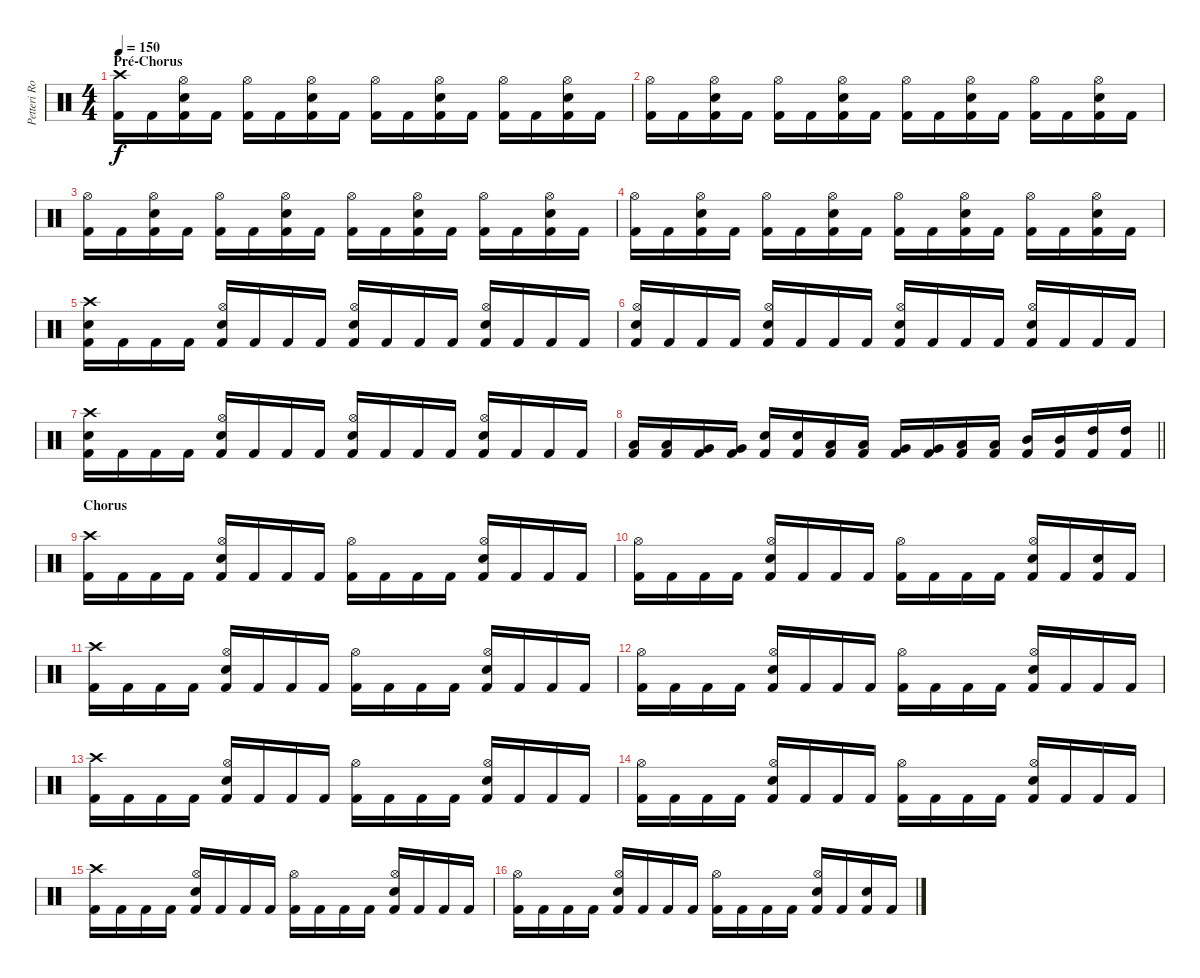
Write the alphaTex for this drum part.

\track ("Petteri Rosenbom" "Petteri Ro") {instrument percussion}
\staff {score}
\articulation defaults
\ts (4 4)
\section ("" "Pré-Chorus")
\tempo 150
\clef neutral
\ks c
("Crash high (hit)" "Kick (hit) 2").16{dy f} "Kick (hit) 2".16 ("Hi-Hat (open)" "Electric Snare (hit)" "Kick (hit) 2").16 "Kick (hit) 2".16 ("Hi-Hat (open)" "Kick (hit) 2").16 "Kick (hit) 2".16 ("Hi-Hat (open)" "Electric Snare (hit)" "Kick (hit) 2").16 "Kick (hit) 2".16 ("Hi-Hat (open)" "Kick (hit) 2").16 "Kick (hit) 2".16 ("Hi-Hat (open)" "Electric Snare (hit)" "Kick (hit) 2").16 "Kick (hit) 2".16 ("Hi-Hat (open)" "Kick (hit) 2").16 "Kick (hit) 2".16 ("Hi-Hat (open)" "Electric Snare (hit)" "Kick (hit) 2").16 "Kick (hit) 2".16 |
("Hi-Hat (open)" "Kick (hit) 2").16 "Kick (hit) 2".16 ("Hi-Hat (open)" "Electric Snare (hit)" "Kick (hit) 2").16 "Kick (hit) 2".16 ("Hi-Hat (open)" "Kick (hit) 2").16 "Kick (hit) 2".16 ("Hi-Hat (open)" "Electric Snare (hit)" "Kick (hit) 2").16 "Kick (hit) 2".16 ("Hi-Hat (open)" "Kick (hit) 2").16 "Kick (hit) 2".16 ("Hi-Hat (open)" "Electric Snare (hit)" "Kick (hit) 2").16 "Kick (hit) 2".16 ("Hi-Hat (open)" "Kick (hit) 2").16 "Kick (hit) 2".16 ("Hi-Hat (open)" "Electric Snare (hit)" "Kick (hit) 2").16 "Kick (hit) 2".16 |
("Hi-Hat (open)" "Kick (hit) 2").16 "Kick (hit) 2".16 ("Hi-Hat (open)" "Electric Snare (hit)" "Kick (hit) 2").16 "Kick (hit) 2".16 ("Hi-Hat (open)" "Kick (hit) 2").16 "Kick (hit) 2".16 ("Hi-Hat (open)" "Electric Snare (hit)" "Kick (hit) 2").16 "Kick (hit) 2".16 ("Hi-Hat (open)" "Kick (hit) 2").16 "Kick (hit) 2".16 ("Hi-Hat (open)" "Electric Snare (hit)" "Kick (hit) 2").16 "Kick (hit) 2".16 ("Hi-Hat (open)" "Kick (hit) 2").16 "Kick (hit) 2".16 ("Hi-Hat (open)" "Electric Snare (hit)" "Kick (hit) 2").16 "Kick (hit) 2".16 |
("Hi-Hat (open)" "Kick (hit) 2").16 "Kick (hit) 2".16 ("Hi-Hat (open)" "Electric Snare (hit)" "Kick (hit) 2").16 "Kick (hit) 2".16 ("Hi-Hat (open)" "Kick (hit) 2").16 "Kick (hit) 2".16 ("Hi-Hat (open)" "Electric Snare (hit)" "Kick (hit) 2").16 "Kick (hit) 2".16 ("Hi-Hat (open)" "Kick (hit) 2").16 "Kick (hit) 2".16 ("Hi-Hat (open)" "Electric Snare (hit)" "Kick (hit) 2").16 "Kick (hit) 2".16 ("Hi-Hat (open)" "Kick (hit) 2").16 "Kick (hit) 2".16 ("Hi-Hat (open)" "Electric Snare (hit)" "Kick (hit) 2").16 "Kick (hit) 2".16 |
("Crash high (hit)" "Electric Snare (hit)" "Kick (hit) 2").16 "Kick (hit) 2".16 "Kick (hit) 2".16 "Kick (hit) 2".16 ("Hi-Hat (open)" "Electric Snare (hit)" "Kick (hit) 2").16 "Kick (hit) 2".16 "Kick (hit) 2".16 "Kick (hit) 2".16 ("Hi-Hat (open)" "Electric Snare (hit)" "Kick (hit) 2").16 "Kick (hit) 2".16 "Kick (hit) 2".16 "Kick (hit) 2".16 ("Hi-Hat (open)" "Electric Snare (hit)" "Kick (hit) 2").16 "Kick (hit) 2".16 "Kick (hit) 2".16 "Kick (hit) 2".16 |
("Hi-Hat (open)" "Electric Snare (hit)" "Kick (hit) 2").16 "Kick (hit) 2".16 "Kick (hit) 2".16 "Kick (hit) 2".16 ("Hi-Hat (open)" "Electric Snare (hit)" "Kick (hit) 2").16 "Kick (hit) 2".16 "Kick (hit) 2".16 "Kick (hit) 2".16 ("Hi-Hat (open)" "Electric Snare (hit)" "Kick (hit) 2").16 "Kick (hit) 2".16 "Kick (hit) 2".16 "Kick (hit) 2".16 ("Hi-Hat (open)" "Electric Snare (hit)" "Kick (hit) 2").16 "Kick (hit) 2".16 "Kick (hit) 2".16 "Kick (hit) 2".16 |
("Crash high (hit)" "Electric Snare (hit)" "Kick (hit) 2").16 "Kick (hit) 2".16 "Kick (hit) 2".16 "Kick (hit) 2".16 ("Hi-Hat (open)" "Electric Snare (hit)" "Kick (hit) 2").16 "Kick (hit) 2".16 "Kick (hit) 2".16 "Kick (hit) 2".16 ("Hi-Hat (open)" "Electric Snare (hit)" "Kick (hit) 2").16 "Kick (hit) 2".16 "Kick (hit) 2".16 "Kick (hit) 2".16 ("Hi-Hat (open)" "Electric Snare (hit)" "Kick (hit) 2").16 "Kick (hit) 2".16 "Kick (hit) 2".16 "Kick (hit) 2".16 |
\barLineRight lightlight
("Low Floor Tom (hit)" "Kick (hit) 2").16 ("Low Floor Tom (hit)" "Kick (hit) 2").16 ("Very Low Tom (hit)" "Kick (hit) 2").16 ("Very Low Tom (hit)" "Kick (hit) 2").16 ("Electric Snare (hit)" "Kick (hit) 2").16 ("Electric Snare (hit)" "Kick (hit) 2").16 ("Low Floor Tom (hit)" "Kick (hit) 2").16 ("Low Floor Tom (hit)" "Kick (hit) 2").16 ("Very Low Tom (hit)" "Kick (hit) 2").16 ("Very Low Tom (hit)" "Kick (hit) 2").16 ("Low Tom (hit)" "Kick (hit) 2").16 ("Low Tom (hit)" "Kick (hit) 2").16 ("Mid Tom (hit)" "Kick (hit) 2").16 ("Mid Tom (hit)" "Kick (hit) 2").16 ("High Tom (hit)" "Kick (hit) 2").16 ("High Tom (hit)" "Kick (hit) 2").16 |
\section ("" "Chorus")
("Crash high (hit)" "Kick (hit) 2").16 "Kick (hit) 2".16 "Kick (hit) 2".16 "Kick (hit) 2".16 ("Hi-Hat (open)" "Electric Snare (hit)" "Kick (hit) 2").16 "Kick (hit) 2".16 "Kick (hit) 2".16 "Kick (hit) 2".16 ("Hi-Hat (open)" "Kick (hit) 2").16 "Kick (hit) 2".16 "Kick (hit) 2".16 "Kick (hit) 2".16 ("Hi-Hat (open)" "Electric Snare (hit)" "Kick (hit) 2").16 "Kick (hit) 2".16 "Kick (hit) 2".16 "Kick (hit) 2".16 |
("Hi-Hat (open)" "Kick (hit) 2").16 "Kick (hit) 2".16 "Kick (hit) 2".16 "Kick (hit) 2".16 ("Hi-Hat (open)" "Electric Snare (hit)" "Kick (hit) 2").16 "Kick (hit) 2".16 "Kick (hit) 2".16 "Kick (hit) 2".16 ("Hi-Hat (open)" "Kick (hit) 2").16 "Kick (hit) 2".16 "Kick (hit) 2".16 "Kick (hit) 2".16 ("Hi-Hat (open)" "Electric Snare (hit)" "Kick (hit) 2").16 "Kick (hit) 2".16 ("Electric Snare (hit)" "Kick (hit) 2").16 "Kick (hit) 2".16 |
("Crash high (hit)" "Kick (hit) 2").16 "Kick (hit) 2".16 "Kick (hit) 2".16 "Kick (hit) 2".16 ("Hi-Hat (open)" "Electric Snare (hit)" "Kick (hit) 2").16 "Kick (hit) 2".16 "Kick (hit) 2".16 "Kick (hit) 2".16 ("Hi-Hat (open)" "Kick (hit) 2").16 "Kick (hit) 2".16 "Kick (hit) 2".16 "Kick (hit) 2".16 ("Hi-Hat (open)" "Electric Snare (hit)" "Kick (hit) 2").16 "Kick (hit) 2".16 "Kick (hit) 2".16 "Kick (hit) 2".16 |
("Hi-Hat (open)" "Kick (hit) 2").16 "Kick (hit) 2".16 "Kick (hit) 2".16 "Kick (hit) 2".16 ("Hi-Hat (open)" "Electric Snare (hit)" "Kick (hit) 2").16 "Kick (hit) 2".16 "Kick (hit) 2".16 "Kick (hit) 2".16 ("Hi-Hat (open)" "Kick (hit) 2").16 "Kick (hit) 2".16 "Kick (hit) 2".16 "Kick (hit) 2".16 ("Hi-Hat (open)" "Electric Snare (hit)" "Kick (hit) 2").16 "Kick (hit) 2".16 "Kick (hit) 2".16 "Kick (hit) 2".16 |
("Crash high (hit)" "Kick (hit) 2").16 "Kick (hit) 2".16 "Kick (hit) 2".16 "Kick (hit) 2".16 ("Hi-Hat (open)" "Electric Snare (hit)" "Kick (hit) 2").16 "Kick (hit) 2".16 "Kick (hit) 2".16 "Kick (hit) 2".16 ("Hi-Hat (open)" "Kick (hit) 2").16 "Kick (hit) 2".16 "Kick (hit) 2".16 "Kick (hit) 2".16 ("Hi-Hat (open)" "Electric Snare (hit)" "Kick (hit) 2").16 "Kick (hit) 2".16 "Kick (hit) 2".16 "Kick (hit) 2".16 |
("Hi-Hat (open)" "Kick (hit) 2").16 "Kick (hit) 2".16 "Kick (hit) 2".16 "Kick (hit) 2".16 ("Hi-Hat (open)" "Electric Snare (hit)" "Kick (hit) 2").16 "Kick (hit) 2".16 "Kick (hit) 2".16 "Kick (hit) 2".16 ("Hi-Hat (open)" "Kick (hit) 2").16 "Kick (hit) 2".16 "Kick (hit) 2".16 "Kick (hit) 2".16 ("Hi-Hat (open)" "Electric Snare (hit)" "Kick (hit) 2").16 "Kick (hit) 2".16 "Kick (hit) 2".16 "Kick (hit) 2".16 |
("Crash high (hit)" "Kick (hit) 2").16 "Kick (hit) 2".16 "Kick (hit) 2".16 "Kick (hit) 2".16 ("Hi-Hat (open)" "Electric Snare (hit)" "Kick (hit) 2").16 "Kick (hit) 2".16 "Kick (hit) 2".16 "Kick (hit) 2".16 ("Hi-Hat (open)" "Kick (hit) 2").16 "Kick (hit) 2".16 "Kick (hit) 2".16 "Kick (hit) 2".16 ("Hi-Hat (open)" "Electric Snare (hit)" "Kick (hit) 2").16 "Kick (hit) 2".16 "Kick (hit) 2".16 "Kick (hit) 2".16 |
("Hi-Hat (open)" "Kick (hit) 2").16 "Kick (hit) 2".16 "Kick (hit) 2".16 "Kick (hit) 2".16 ("Hi-Hat (open)" "Electric Snare (hit)" "Kick (hit) 2").16 "Kick (hit) 2".16 "Kick (hit) 2".16 "Kick (hit) 2".16 ("Hi-Hat (open)" "Kick (hit) 2").16 "Kick (hit) 2".16 "Kick (hit) 2".16 "Kick (hit) 2".16 ("Hi-Hat (open)" "Electric Snare (hit)" "Kick (hit) 2").16 "Kick (hit) 2".16 ("Electric Snare (hit)" "Kick (hit) 2").16 "Kick (hit) 2".16
